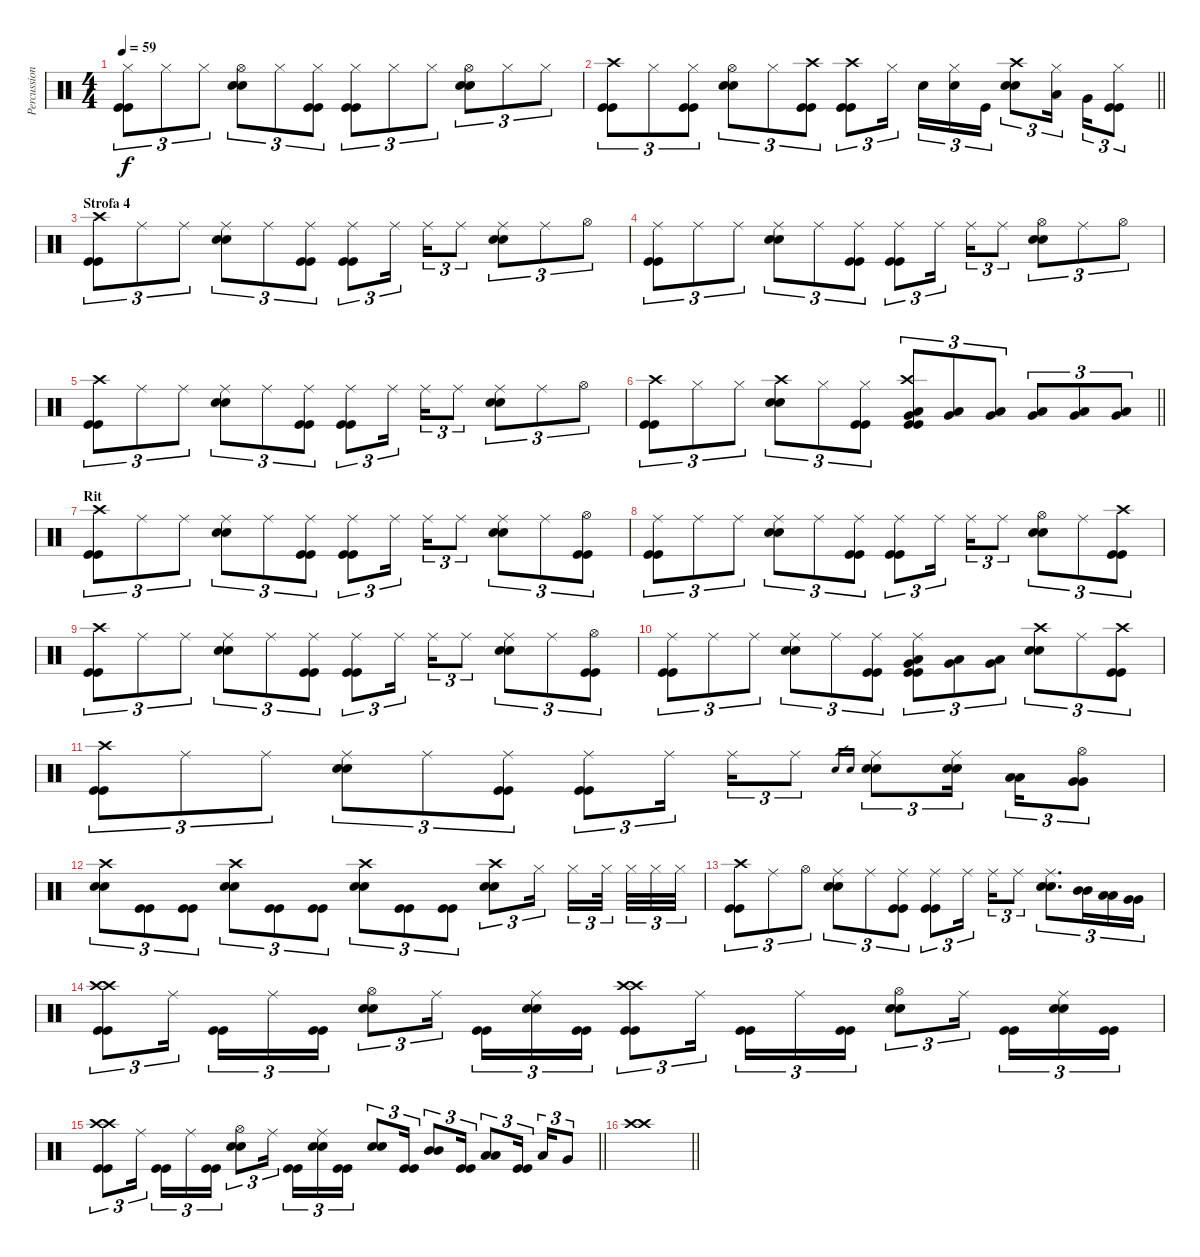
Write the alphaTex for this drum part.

\track ("Percussioni" "Percussion") {instrument percussion}
\staff {score}
\articulation defaults
\ts (4 4)
\tempo 59
\clef neutral
\ks c
("Hi-Hat (closed)" "Kick (hit)" "Kick (hit)").8{tu (3 2) dy f} "Hi-Hat (closed)".8{tu (3 2)} "Hi-Hat (closed)".8{tu (3 2)} ("Hi-Hat (open)" "Snare (hit) 2" "Snare (hit) 2").8{tu (3 2)} "Hi-Hat (closed)".8{tu (3 2)} ("Hi-Hat (closed)" "Kick (hit)" "Kick (hit)").8{tu (3 2)} ("Hi-Hat (closed)" "Kick (hit)" "Kick (hit)").8{tu (3 2)} "Hi-Hat (closed)".8{tu (3 2)} "Hi-Hat (closed)".8{tu (3 2)} ("Hi-Hat (open)" "Snare (hit) 2" "Snare (hit) 2").8{tu (3 2)} "Hi-Hat (closed)".8{tu (3 2)} "Hi-Hat (closed)".8{tu (3 2)} |
\barLineRight lightlight
("Crash high (hit)" "Kick (hit)" "Kick (hit)").8{tu (3 2)} "Hi-Hat (closed)".8{tu (3 2)} ("Hi-Hat (closed)" "Kick (hit)" "Kick (hit)").8{tu (3 2)} ("Hi-Hat (open)" "Snare (hit) 2" "Snare (hit) 2").8{tu (3 2) beam Down} "Hi-Hat (closed)".8{tu (3 2) beam Down} ("Crash high (hit)" "Kick (hit)" "Kick (hit)").8{tu (3 2) beam Down} ("Crash high (hit)" "Kick (hit)" "Kick (hit)").8{tu (3 2)} "Hi-Hat (closed)".16{tu (3 2) beam splitsecondary} "Snare (hit) 2".16{tu (3 2)} ("Hi-Hat (closed)" "Snare (hit) 2").16{tu (3 2)} "Kick (hit)".16{tu (3 2)} ("Crash high (hit)" "Snare (hit) 2" "Snare (hit) 2").8{tu (3 2)} ("Hi-Hat (closed)" "Low Tom (hit)").16{tu (3 2) beam splitsecondary} "Very Low Tom (hit)".16{tu (3 2)} ("Hi-Hat (closed)" "Kick (hit)" "Kick (hit)").8{tu (3 2)} |
\section ("" "Strofa 4")
("Crash high (hit)" "Kick (hit)" "Kick (hit)").8{tu (3 2)} "Ride (middle)".8{tu (3 2)} "Ride (middle)".8{tu (3 2)} ("Ride (middle)" "Snare (hit) 2" "Snare (hit) 2").8{tu (3 2)} "Ride (middle)".8{tu (3 2)} ("Ride (middle)" "Kick (hit)" "Kick (hit)").8{tu (3 2)} ("Ride (middle)" "Kick (hit)" "Kick (hit)").8{tu (3 2)} "Ride (middle)".16{tu (3 2) beam splitsecondary} "Ride (middle)".16{tu (3 2)} "Ride (middle)".8{tu (3 2)} ("Ride (middle)" "Snare (hit) 2" "Snare (hit) 2").8{tu (3 2)} "Ride (middle)".8{tu (3 2)} "Hi-Hat (open)".8{tu (3 2)} |
("Ride (middle)" "Kick (hit)" "Kick (hit)").8{tu (3 2)} "Ride (middle)".8{tu (3 2)} "Ride (middle)".8{tu (3 2)} ("Ride (middle)" "Snare (hit) 2" "Snare (hit) 2").8{tu (3 2)} "Ride (middle)".8{tu (3 2)} ("Ride (middle)" "Kick (hit)" "Kick (hit)").8{tu (3 2)} ("Ride (middle)" "Kick (hit)" "Kick (hit)").8{tu (3 2)} "Ride (middle)".16{tu (3 2) beam splitsecondary} "Ride (middle)".16{tu (3 2)} "Ride (middle)".8{tu (3 2)} ("Hi-Hat (open)" "Snare (hit) 2" "Snare (hit) 2").8{tu (3 2)} "Ride (middle)".8{tu (3 2)} "Hi-Hat (open)".8{tu (3 2)} |
("Crash high (hit)" "Kick (hit)" "Kick (hit)").8{tu (3 2)} "Ride (middle)".8{tu (3 2)} "Ride (middle)".8{tu (3 2)} ("Ride (middle)" "Snare (hit) 2" "Snare (hit) 2").8{tu (3 2)} "Ride (middle)".8{tu (3 2)} ("Ride (middle)" "Kick (hit)" "Kick (hit)").8{tu (3 2)} ("Ride (middle)" "Kick (hit)" "Kick (hit)").8{tu (3 2)} "Ride (middle)".16{tu (3 2) beam splitsecondary} "Ride (middle)".16{tu (3 2)} "Ride (middle)".8{tu (3 2)} ("Ride (middle)" "Snare (hit) 2" "Snare (hit) 2").8{tu (3 2)} "Ride (middle)".8{tu (3 2)} "Hi-Hat (open)".8{tu (3 2)} |
\barLineRight lightlight
("Crash high (hit)" "Kick (hit)" "Kick (hit)").8{tu (3 2)} "Hi-Hat (closed)".8{tu (3 2)} "Hi-Hat (closed)".8{tu (3 2)} ("Crash high (hit)" "Snare (hit) 2" "Snare (hit) 2").8{tu (3 2)} "Hi-Hat (closed)".8{tu (3 2)} ("Hi-Hat (closed)" "Kick (hit)" "Kick (hit)").8{tu (3 2)} ("Crash high (hit)" "Low Tom (hit)" "Very Low Tom (hit)" "Kick (hit)" "Kick (hit)").8{tu (3 2) volume 6} ("Low Tom (hit)" "Very Low Tom (hit)").8{tu (3 2) volume 9} ("Low Tom (hit)" "Very Low Tom (hit)").8{tu (3 2) volume 11} ("Low Tom (hit)" "Very Low Tom (hit)").8{tu (3 2)} ("Low Tom (hit)" "Very Low Tom (hit)").8{tu (3 2)} ("Low Tom (hit)" "Very Low Tom (hit)").8{tu (3 2)} |
\section ("" "Rit")
("Crash high (hit)" "Kick (hit)" "Kick (hit)").8{tu (3 2)} "Ride (middle)".8{tu (3 2)} "Ride (middle)".8{tu (3 2)} ("Ride (middle)" "Snare (hit) 2" "Snare (hit) 2").8{tu (3 2)} "Ride (middle)".8{tu (3 2)} ("Ride (middle)" "Kick (hit)" "Kick (hit)").8{tu (3 2)} ("Ride (middle)" "Kick (hit)" "Kick (hit)").8{tu (3 2)} "Ride (middle)".16{tu (3 2) beam splitsecondary} "Ride (middle)".16{tu (3 2)} "Ride (middle)".8{tu (3 2)} ("Ride (middle)" "Snare (hit) 2" "Snare (hit) 2").8{tu (3 2)} "Ride (middle)".8{tu (3 2)} ("Hi-Hat (open)" "Kick (hit)" "Kick (hit)").8{tu (3 2)} |
("Ride (middle)" "Kick (hit)" "Kick (hit)").8{tu (3 2)} "Ride (middle)".8{tu (3 2)} "Ride (middle)".8{tu (3 2)} ("Ride (middle)" "Snare (hit) 2" "Snare (hit) 2").8{tu (3 2)} "Ride (middle)".8{tu (3 2)} ("Ride (middle)" "Kick (hit)" "Kick (hit)").8{tu (3 2)} ("Ride (middle)" "Kick (hit)" "Kick (hit)").8{tu (3 2)} "Ride (middle)".16{tu (3 2) beam splitsecondary} "Ride (middle)".16{tu (3 2)} "Ride (middle)".8{tu (3 2)} ("Hi-Hat (open)" "Snare (hit) 2" "Snare (hit) 2").8{tu (3 2)} "Ride (middle)".8{tu (3 2)} ("Crash high (hit)" "Kick (hit)" "Kick (hit)").8{tu (3 2)} |
("Crash high (hit)" "Kick (hit)" "Kick (hit)").8{tu (3 2)} "Ride (middle)".8{tu (3 2)} "Ride (middle)".8{tu (3 2)} ("Ride (middle)" "Snare (hit) 2" "Snare (hit) 2").8{tu (3 2)} "Ride (middle)".8{tu (3 2)} ("Ride (middle)" "Kick (hit)" "Kick (hit)").8{tu (3 2)} ("Ride (middle)" "Kick (hit)" "Kick (hit)").8{tu (3 2)} "Ride (middle)".16{tu (3 2) beam splitsecondary} "Ride (middle)".16{tu (3 2)} "Ride (middle)".8{tu (3 2)} ("Ride (middle)" "Snare (hit) 2" "Snare (hit) 2").8{tu (3 2)} "Ride (middle)".8{tu (3 2)} ("Hi-Hat (open)" "Kick (hit)" "Kick (hit)").8{tu (3 2)} |
("Ride (middle)" "Kick (hit)" "Kick (hit)").8{tu (3 2)} "Ride (middle)".8{tu (3 2)} "Ride (middle)".8{tu (3 2)} ("Ride (middle)" "Snare (hit) 2" "Snare (hit) 2").8{tu (3 2)} "Ride (middle)".8{tu (3 2)} ("Ride (middle)" "Kick (hit)" "Kick (hit)").8{tu (3 2)} ("Ride (middle)" "Low Tom (hit)" "Very Low Tom (hit)" "Kick (hit)" "Kick (hit)").8{tu (3 2)} ("Low Tom (hit)" "Very Low Tom (hit)").8{tu (3 2)} ("Low Tom (hit)" "Very Low Tom (hit)").8{tu (3 2)} ("Crash high (hit)" "Snare (hit) 2" "Snare (hit) 2").8{tu (3 2)} "Ride (middle)".8{tu (3 2)} ("Crash high (hit)" "Kick (hit)" "Kick (hit)").8{tu (3 2)} |
("Crash high (hit)" "Kick (hit)" "Kick (hit)").8{tu (3 2)} "Ride (middle)".8{tu (3 2)} "Ride (middle)".8{tu (3 2)} ("Ride (middle)" "Snare (hit) 2" "Snare (hit) 2").8{tu (3 2)} "Ride (middle)".8{tu (3 2)} ("Ride (middle)" "Kick (hit)" "Kick (hit)").8{tu (3 2)} ("Ride (middle)" "Kick (hit)" "Kick (hit)").8{tu (3 2)} "Ride (middle)".16{tu (3 2) beam splitsecondary} "Ride (middle)".16{tu (3 2)} "Ride (middle)".8{tu (3 2)} "Snare (hit) 2".16{gr} "Snare (hit) 2".16{gr} ("Ride (middle)" "Snare (hit) 2" "Snare (hit) 2").8{tu (3 2)} ("Ride (middle)" "Snare (hit) 2" "Snare (hit) 2").16{tu (3 2) beam splitsecondary} ("Low Tom (hit)" "Low Tom (hit)").16{tu (3 2)} ("Hi-Hat (open)" "Very Low Tom (hit)" "Very Low Tom (hit)").8{tu (3 2)} |
("Crash high (hit)" "Snare (hit) 2" "Snare (hit) 2").8{tu (3 2)} ("Kick (hit)" "Kick (hit)").8{tu (3 2)} ("Kick (hit)" "Kick (hit)").8{tu (3 2)} ("Crash high (hit)" "Snare (hit) 2" "Snare (hit) 2").8{tu (3 2)} ("Kick (hit)" "Kick (hit)").8{tu (3 2)} ("Kick (hit)" "Kick (hit)").8{tu (3 2)} ("Crash high (hit)" "Snare (hit) 2" "Snare (hit) 2").8{tu (3 2)} ("Kick (hit)" "Kick (hit)").8{tu (3 2)} ("Kick (hit)" "Kick (hit)").8{tu (3 2)} ("Crash high (hit)" "Snare (hit) 2" "Snare (hit) 2").8{tu (3 2)} "Hi-Hat (closed)".16{tu (3 2) beam splitsecondary} "Hi-Hat (closed)".16{tu (3 2)} "Hi-Hat (closed)".32{tu (3 2) beam splitsecondary} "Hi-Hat (closed)".32{tu (3 2)} "Hi-Hat (closed)".32{tu (3 2)} "Hi-Hat (closed)".32{tu (3 2)} |
("Crash high (hit)" "Kick (hit)" "Kick (hit)").8{tu (3 2)} "Ride (middle)".8{tu (3 2)} "Hi-Hat (open)".8{tu (3 2)} ("Ride (middle)" "Snare (hit) 2" "Snare (hit) 2").8{tu (3 2)} "Ride (middle)".8{tu (3 2)} ("Ride (middle)" "Kick (hit)" "Kick (hit)").8{tu (3 2)} ("Ride (middle)" "Kick (hit)" "Kick (hit)").8{tu (3 2)} "Ride (middle)".16{tu (3 2) beam splitsecondary} "Ride (middle)".16{tu (3 2)} "Ride (middle)".8{tu (3 2)} ("Ride (middle)" "Snare (hit) 2" "Snare (hit) 2").8{d tu (3 2)} ("Mid Tom (hit)" "Mid Tom (hit)").16{tu (3 2)} ("Low Tom (hit)" "Low Tom (hit)").16{tu (3 2)} ("Very Low Tom (hit)" "Very Low Tom (hit)").16{tu (3 2)} |
("Crash high (hit)" "Crash high (hit)" "Kick (hit)" "Kick (hit)").8{tu (3 2)} "Ride (middle)".16{tu (3 2) beam splitsecondary} ("Kick (hit)" "Kick (hit)").16{tu (3 2)} "Ride (middle)".16{tu (3 2)} ("Kick (hit)" "Kick (hit)").16{tu (3 2)} ("Hi-Hat (open)" "Snare (hit) 2" "Snare (hit) 2").8{tu (3 2)} "Ride (middle)".16{tu (3 2) beam splitsecondary} ("Kick (hit)" "Kick (hit)").16{tu (3 2)} ("Ride (middle)" "Snare (hit) 2" "Snare (hit) 2").16{tu (3 2)} ("Kick (hit)" "Kick (hit)").16{tu (3 2)} ("Crash high (hit)" "Crash high (hit)" "Kick (hit)" "Kick (hit)").8{tu (3 2)} "Ride (middle)".16{tu (3 2) beam splitsecondary} ("Kick (hit)" "Kick (hit)").16{tu (3 2)} "Ride (middle)".16{tu (3 2)} ("Kick (hit)" "Kick (hit)").16{tu (3 2)} ("Hi-Hat (open)" "Snare (hit) 2" "Snare (hit) 2").8{tu (3 2)} "Ride (middle)".16{tu (3 2) beam splitsecondary} ("Kick (hit)" "Kick (hit)").16{tu (3 2)} ("Ride (middle)" "Snare (hit) 2" "Snare (hit) 2").16{tu (3 2)} ("Kick (hit)" "Kick (hit)").16{tu (3 2)} |
\barLineRight lightlight
("Crash high (hit)" "Crash high (hit)" "Kick (hit)" "Kick (hit)").8{tu (3 2)} "Ride (middle)".16{tu (3 2) beam splitsecondary} ("Kick (hit)" "Kick (hit)").16{tu (3 2)} "Ride (middle)".16{tu (3 2)} ("Kick (hit)" "Kick (hit)").16{tu (3 2)} ("Hi-Hat (open)" "Snare (hit) 2" "Snare (hit) 2").8{tu (3 2)} "Ride (middle)".16{tu (3 2) beam splitsecondary} ("Kick (hit)" "Kick (hit)").16{tu (3 2)} ("Ride (middle)" "Snare (hit) 2" "Snare (hit) 2").16{tu (3 2)} ("Kick (hit)" "Kick (hit)").16{tu (3 2)} ("Snare (hit) 2" "Snare (hit) 2").8{tu (3 2)} ("Kick (hit)" "Kick (hit)").16{tu (3 2)} ("Mid Tom (hit)" "Mid Tom (hit)").8{tu (3 2)} ("Kick (hit)" "Kick (hit)").16{tu (3 2)} ("Low Tom (hit)" "Low Tom (hit)").8{tu (3 2)} ("Kick (hit)" "Kick (hit)").16{tu (3 2) beam splitsecondary} "Low Tom (hit)".16{tu (3 2)} "Very Low Tom (hit)".8{tu (3 2)} |
\barLineRight lightlight
("Crash high (hit)" "Crash high (hit)").1
